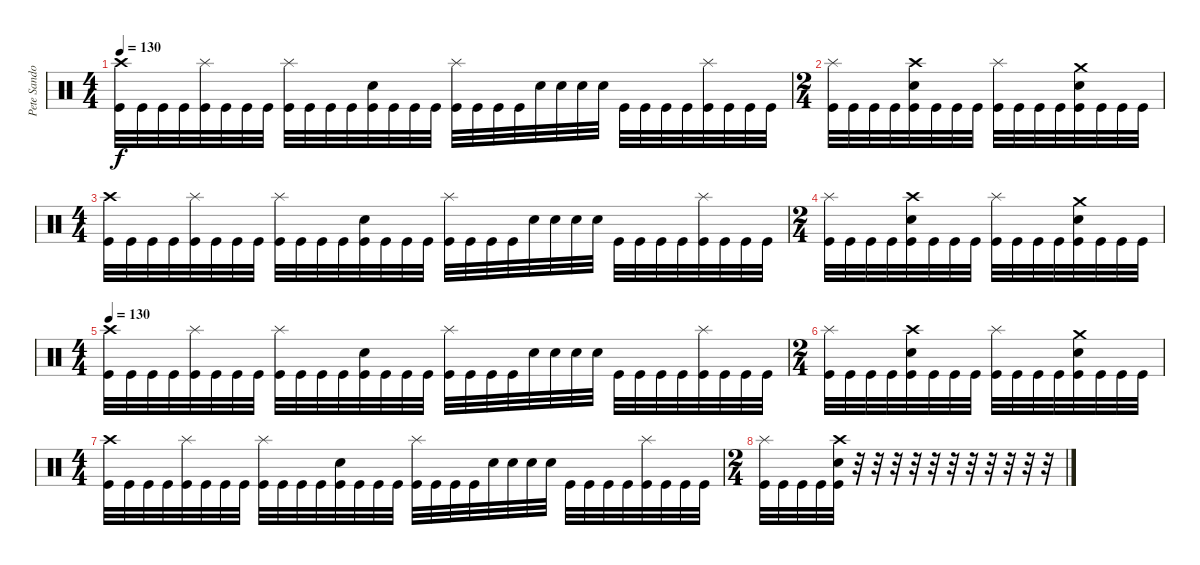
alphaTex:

\track ("Pete Sandoval" "Pete Sando") {instrument percussion}
\staff {score}
\articulation defaults
\ts (4 4)
\tempo 130
\clef neutral
\ks c
("Crash high (hit)" "Kick (hit)").32{dy f} "Kick (hit)".32 "Kick (hit)".32 "Kick (hit)".32 ("Splash (hit)" "Kick (hit)").32 "Kick (hit)".32 "Kick (hit)".32 "Kick (hit)".32 ("Splash (hit)" "Kick (hit)").32 "Kick (hit)".32 "Kick (hit)".32 "Kick (hit)".32 ("Electric Snare (hit)" "Kick (hit)").32 "Kick (hit)".32 "Kick (hit)".32 "Kick (hit)".32 ("Splash (hit)" "Kick (hit)").32 "Kick (hit)".32 "Kick (hit)".32 "Kick (hit)".32 "Electric Snare (hit)".32 "Electric Snare (hit)".32 "Electric Snare (hit)".32 "Electric Snare (hit)".32 "Kick (hit)".32 "Kick (hit)".32 "Kick (hit)".32 "Kick (hit)".32 ("Splash (hit)" "Kick (hit)").32 "Kick (hit)".32 "Kick (hit)".32 "Kick (hit)".32 |
\ts (2 4)
("Splash (hit)" "Kick (hit)").32 "Kick (hit)".32 "Kick (hit)".32 "Kick (hit)".32 ("Crash high (hit)" "Electric Snare (hit)" "Kick (hit)").32 "Kick (hit)".32 "Kick (hit)".32 "Kick (hit)".32 ("Splash (hit)" "Kick (hit)").32 "Kick (hit)".32 "Kick (hit)".32 "Kick (hit)".32 ("Crash medium (hit)" "Electric Snare (hit)" "Kick (hit)").32 "Kick (hit)".32 "Kick (hit)".32 "Kick (hit)".32 |
\ts (4 4)
("Crash high (hit)" "Kick (hit)").32 "Kick (hit)".32 "Kick (hit)".32 "Kick (hit)".32 ("Splash (hit)" "Kick (hit)").32 "Kick (hit)".32 "Kick (hit)".32 "Kick (hit)".32 ("Splash (hit)" "Kick (hit)").32 "Kick (hit)".32 "Kick (hit)".32 "Kick (hit)".32 ("Electric Snare (hit)" "Kick (hit)").32 "Kick (hit)".32 "Kick (hit)".32 "Kick (hit)".32 ("Splash (hit)" "Kick (hit)").32 "Kick (hit)".32 "Kick (hit)".32 "Kick (hit)".32 "Electric Snare (hit)".32 "Electric Snare (hit)".32 "Electric Snare (hit)".32 "Electric Snare (hit)".32 "Kick (hit)".32 "Kick (hit)".32 "Kick (hit)".32 "Kick (hit)".32 ("Splash (hit)" "Kick (hit)").32 "Kick (hit)".32 "Kick (hit)".32 "Kick (hit)".32 |
\ts (2 4)
("Splash (hit)" "Kick (hit)").32 "Kick (hit)".32 "Kick (hit)".32 "Kick (hit)".32 ("Crash high (hit)" "Electric Snare (hit)" "Kick (hit)").32 "Kick (hit)".32 "Kick (hit)".32 "Kick (hit)".32 ("Splash (hit)" "Kick (hit)").32 "Kick (hit)".32 "Kick (hit)".32 "Kick (hit)".32 ("Crash medium (hit)" "Electric Snare (hit)" "Kick (hit)").32 "Kick (hit)".32 "Kick (hit)".32 "Kick (hit)".32 |
\ts (4 4)
\tempo 130
("Crash high (hit)" "Kick (hit)").32 "Kick (hit)".32 "Kick (hit)".32 "Kick (hit)".32 ("Splash (hit)" "Kick (hit)").32 "Kick (hit)".32 "Kick (hit)".32 "Kick (hit)".32 ("Splash (hit)" "Kick (hit)").32 "Kick (hit)".32 "Kick (hit)".32 "Kick (hit)".32 ("Electric Snare (hit)" "Kick (hit)").32 "Kick (hit)".32 "Kick (hit)".32 "Kick (hit)".32 ("Splash (hit)" "Kick (hit)").32 "Kick (hit)".32 "Kick (hit)".32 "Kick (hit)".32 "Electric Snare (hit)".32 "Electric Snare (hit)".32 "Electric Snare (hit)".32 "Electric Snare (hit)".32 "Kick (hit)".32 "Kick (hit)".32 "Kick (hit)".32 "Kick (hit)".32 ("Splash (hit)" "Kick (hit)").32 "Kick (hit)".32 "Kick (hit)".32 "Kick (hit)".32 |
\ts (2 4)
("Splash (hit)" "Kick (hit)").32 "Kick (hit)".32 "Kick (hit)".32 "Kick (hit)".32 ("Crash high (hit)" "Electric Snare (hit)" "Kick (hit)").32 "Kick (hit)".32 "Kick (hit)".32 "Kick (hit)".32 ("Splash (hit)" "Kick (hit)").32 "Kick (hit)".32 "Kick (hit)".32 "Kick (hit)".32 ("Crash medium (hit)" "Electric Snare (hit)" "Kick (hit)").32 "Kick (hit)".32 "Kick (hit)".32 "Kick (hit)".32 |
\ts (4 4)
("Crash high (hit)" "Kick (hit)").32 "Kick (hit)".32 "Kick (hit)".32 "Kick (hit)".32 ("Splash (hit)" "Kick (hit)").32 "Kick (hit)".32 "Kick (hit)".32 "Kick (hit)".32 ("Splash (hit)" "Kick (hit)").32 "Kick (hit)".32 "Kick (hit)".32 "Kick (hit)".32 ("Electric Snare (hit)" "Kick (hit)").32 "Kick (hit)".32 "Kick (hit)".32 "Kick (hit)".32 ("Splash (hit)" "Kick (hit)").32 "Kick (hit)".32 "Kick (hit)".32 "Kick (hit)".32 "Electric Snare (hit)".32 "Electric Snare (hit)".32 "Electric Snare (hit)".32 "Electric Snare (hit)".32 "Kick (hit)".32 "Kick (hit)".32 "Kick (hit)".32 "Kick (hit)".32 ("Splash (hit)" "Kick (hit)").32 "Kick (hit)".32 "Kick (hit)".32 "Kick (hit)".32 |
\ts (2 4)
("Splash (hit)" "Kick (hit)").32 "Kick (hit)".32 "Kick (hit)".32 "Kick (hit)".32 ("Crash high (hit)" "Electric Snare (hit)" "Kick (hit)").32 r.32 r.32 r.32 r.32 r.32 r.32 r.32 r.32 r.32 r.32 r.32
